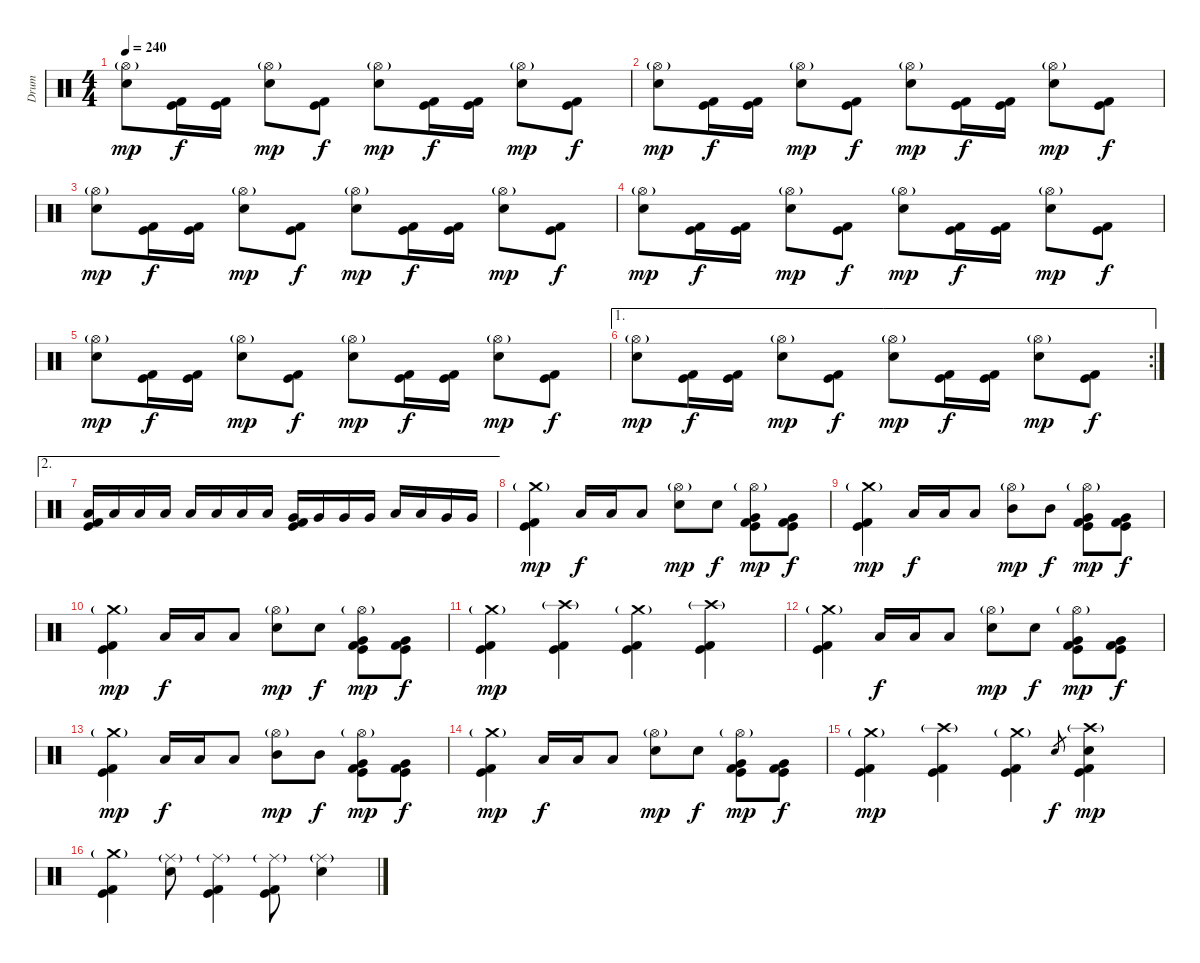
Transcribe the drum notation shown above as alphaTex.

\track ("Drum" "Drum") {instrument percussion}
\staff {score}
\articulation defaults
\ts (4 4)
\tempo 240
\clef neutral
\ks c
("Hi-Hat (open)"{g} "Electric Snare (hit)").8{dy mp} ("Kick (hit)" "Kick (hit) 2").16{dy f} ("Kick (hit)" "Kick (hit) 2").16 ("Hi-Hat (open)"{g} "Electric Snare (hit)").8{dy mp} ("Kick (hit)" "Kick (hit) 2").8{dy f} ("Hi-Hat (open)"{g} "Electric Snare (hit)").8{dy mp} ("Kick (hit)" "Kick (hit) 2").16{dy f} ("Kick (hit)" "Kick (hit) 2").16 ("Hi-Hat (open)"{g} "Electric Snare (hit)").8{dy mp} ("Kick (hit)" "Kick (hit) 2").8{dy f} |
("Hi-Hat (open)"{g} "Electric Snare (hit)").8{dy mp} ("Kick (hit)" "Kick (hit) 2").16{dy f} ("Kick (hit)" "Kick (hit) 2").16 ("Hi-Hat (open)"{g} "Electric Snare (hit)").8{dy mp} ("Kick (hit)" "Kick (hit) 2").8{dy f} ("Hi-Hat (open)"{g} "Electric Snare (hit)").8{dy mp} ("Kick (hit)" "Kick (hit) 2").16{dy f} ("Kick (hit)" "Kick (hit) 2").16 ("Hi-Hat (open)"{g} "Electric Snare (hit)").8{dy mp} ("Kick (hit)" "Kick (hit) 2").8{dy f} |
("Hi-Hat (open)"{g} "Electric Snare (hit)").8{dy mp} ("Kick (hit)" "Kick (hit) 2").16{dy f} ("Kick (hit)" "Kick (hit) 2").16 ("Hi-Hat (open)"{g} "Electric Snare (hit)").8{dy mp} ("Kick (hit)" "Kick (hit) 2").8{dy f} ("Hi-Hat (open)"{g} "Electric Snare (hit)").8{dy mp} ("Kick (hit)" "Kick (hit) 2").16{dy f} ("Kick (hit)" "Kick (hit) 2").16 ("Hi-Hat (open)"{g} "Electric Snare (hit)").8{dy mp} ("Kick (hit)" "Kick (hit) 2").8{dy f} |
("Hi-Hat (open)"{g} "Electric Snare (hit)").8{dy mp} ("Kick (hit)" "Kick (hit) 2").16{dy f} ("Kick (hit)" "Kick (hit) 2").16 ("Hi-Hat (open)"{g} "Electric Snare (hit)").8{dy mp} ("Kick (hit)" "Kick (hit) 2").8{dy f} ("Hi-Hat (open)"{g} "Electric Snare (hit)").8{dy mp} ("Kick (hit)" "Kick (hit) 2").16{dy f} ("Kick (hit)" "Kick (hit) 2").16 ("Hi-Hat (open)"{g} "Electric Snare (hit)").8{dy mp} ("Kick (hit)" "Kick (hit) 2").8{dy f} |
("Hi-Hat (open)"{g} "Electric Snare (hit)").8{dy mp} ("Kick (hit)" "Kick (hit) 2").16{dy f} ("Kick (hit)" "Kick (hit) 2").16 ("Hi-Hat (open)"{g} "Electric Snare (hit)").8{dy mp} ("Kick (hit)" "Kick (hit) 2").8{dy f} ("Hi-Hat (open)"{g} "Electric Snare (hit)").8{dy mp} ("Kick (hit)" "Kick (hit) 2").16{dy f} ("Kick (hit)" "Kick (hit) 2").16 ("Hi-Hat (open)"{g} "Electric Snare (hit)").8{dy mp} ("Kick (hit)" "Kick (hit) 2").8{dy f} |
\ae 1
\rc 2
("Hi-Hat (open)"{g} "Electric Snare (hit)").8{dy mp} ("Kick (hit)" "Kick (hit) 2").16{dy f} ("Kick (hit)" "Kick (hit) 2").16 ("Hi-Hat (open)"{g} "Electric Snare (hit)").8{dy mp} ("Kick (hit)" "Kick (hit) 2").8{dy f} ("Hi-Hat (open)"{g} "Electric Snare (hit)").8{dy mp} ("Kick (hit)" "Kick (hit) 2").16{dy f} ("Kick (hit)" "Kick (hit) 2").16 ("Hi-Hat (open)"{g} "Electric Snare (hit)").8{dy mp} ("Kick (hit)" "Kick (hit) 2").8{dy f} |
\ae 2
("Low Tom (hit)" "Kick (hit)" "Kick (hit) 2").16 "Low Tom (hit)".16 "Low Tom (hit)".16 "Low Tom (hit)".16 "Low Floor Tom (hit)".16 "Low Floor Tom (hit)".16 "Low Floor Tom (hit)".16 "Low Floor Tom (hit)".16 ("Very Low Tom (hit)" "Kick (hit)" "Kick (hit) 2").16 "Very Low Tom (hit)".16 "Very Low Tom (hit)".16 "Very Low Tom (hit)".16 "Low Tom (hit)".16 "Low Tom (hit)".16 "Very Low Tom (hit)".16 "Very Low Tom (hit)".16 |
("Crash medium (hit)"{g} "Kick (hit)" "Kick (hit) 2").4{dy mp} "Low Floor Tom (hit)".16{dy f} "Low Floor Tom (hit)".16 "Low Floor Tom (hit)".8 ("Hi-Hat (open)"{g} "Electric Snare (hit)").8{dy mp} "Electric Snare (hit)".8{dy f} ("Hi-Hat (open)"{g} "Very Low Tom (hit)" "Kick (hit)" "Kick (hit) 2").8{dy mp} ("Very Low Tom (hit)" "Kick (hit)" "Kick (hit) 2").8{dy f} |
("Crash medium (hit)"{g} "Kick (hit)" "Kick (hit) 2").4{dy mp} "Low Floor Tom (hit)".16{dy f} "Low Floor Tom (hit)".16 "Low Floor Tom (hit)".8 ("Hi-Hat (open)"{g} "Mid Tom (hit)").8{dy mp} "Mid Tom (hit)".8{dy f} ("Hi-Hat (open)"{g} "Very Low Tom (hit)" "Kick (hit)" "Kick (hit) 2").8{dy mp} ("Very Low Tom (hit)" "Kick (hit)" "Kick (hit) 2").8{dy f} |
("Crash medium (hit)"{g} "Kick (hit)" "Kick (hit) 2").4{dy mp} "Low Floor Tom (hit)".16{dy f} "Low Floor Tom (hit)".16 "Low Floor Tom (hit)".8 ("Hi-Hat (open)"{g} "Electric Snare (hit)").8{dy mp} "Electric Snare (hit)".8{dy f} ("Hi-Hat (open)"{g} "Very Low Tom (hit)" "Kick (hit)" "Kick (hit) 2").8{dy mp} ("Very Low Tom (hit)" "Kick (hit)" "Kick (hit) 2").8{dy f} |
("Crash medium (hit)"{g} "Kick (hit)" "Kick (hit) 2").4{dy mp} ("Crash high (hit)"{g} "Kick (hit)" "Kick (hit) 2").4 ("Crash medium (hit)"{g} "Kick (hit)" "Kick (hit) 2").4 ("Crash high (hit)"{g} "Kick (hit)" "Kick (hit) 2").4 |
("Crash medium (hit)"{g} "Kick (hit)" "Kick (hit) 2").4 "Low Floor Tom (hit)".16{dy f} "Low Floor Tom (hit)".16 "Low Floor Tom (hit)".8 ("Hi-Hat (open)"{g} "Electric Snare (hit)").8{dy mp} "Electric Snare (hit)".8{dy f} ("Hi-Hat (open)"{g} "Very Low Tom (hit)" "Kick (hit)" "Kick (hit) 2").8{dy mp} ("Very Low Tom (hit)" "Kick (hit)" "Kick (hit) 2").8{dy f} |
("Crash medium (hit)"{g} "Kick (hit)" "Kick (hit) 2").4{dy mp} "Low Floor Tom (hit)".16{dy f} "Low Floor Tom (hit)".16 "Low Floor Tom (hit)".8 ("Hi-Hat (open)"{g} "Mid Tom (hit)").8{dy mp} "Mid Tom (hit)".8{dy f} ("Hi-Hat (open)"{g} "Very Low Tom (hit)" "Kick (hit)" "Kick (hit) 2").8{dy mp} ("Very Low Tom (hit)" "Kick (hit)" "Kick (hit) 2").8{dy f} |
("Crash medium (hit)"{g} "Kick (hit)" "Kick (hit) 2").4{dy mp} "Low Floor Tom (hit)".16{dy f} "Low Floor Tom (hit)".16 "Low Floor Tom (hit)".8 ("Hi-Hat (open)"{g} "Electric Snare (hit)").8{dy mp} "Electric Snare (hit)".8{dy f} ("Hi-Hat (open)"{g} "Very Low Tom (hit)" "Kick (hit)" "Kick (hit) 2").8{dy mp} ("Very Low Tom (hit)" "Kick (hit)" "Kick (hit) 2").8{dy f} |
("Crash medium (hit)"{g} "Kick (hit)" "Kick (hit) 2").4{dy mp} ("Crash high (hit)"{g} "Kick (hit)" "Kick (hit) 2").4 ("Crash medium (hit)"{g} "Kick (hit)" "Kick (hit) 2").4 "Electric Snare (hit)".8{gr dy f} ("Crash high (hit)"{g} "Electric Snare (hit)" "Kick (hit)" "Kick (hit) 2").4{dy mp} |
("Crash medium (hit)"{g} "Kick (hit)" "Kick (hit) 2").4 ("Ride (middle)"{g} "Electric Snare (hit)").8 ("Ride (middle)"{g} "Kick (hit)" "Kick (hit) 2").4 ("Ride (middle)"{g} "Kick (hit)" "Kick (hit) 2").8 ("Ride (middle)"{g} "Electric Snare (hit)").4
